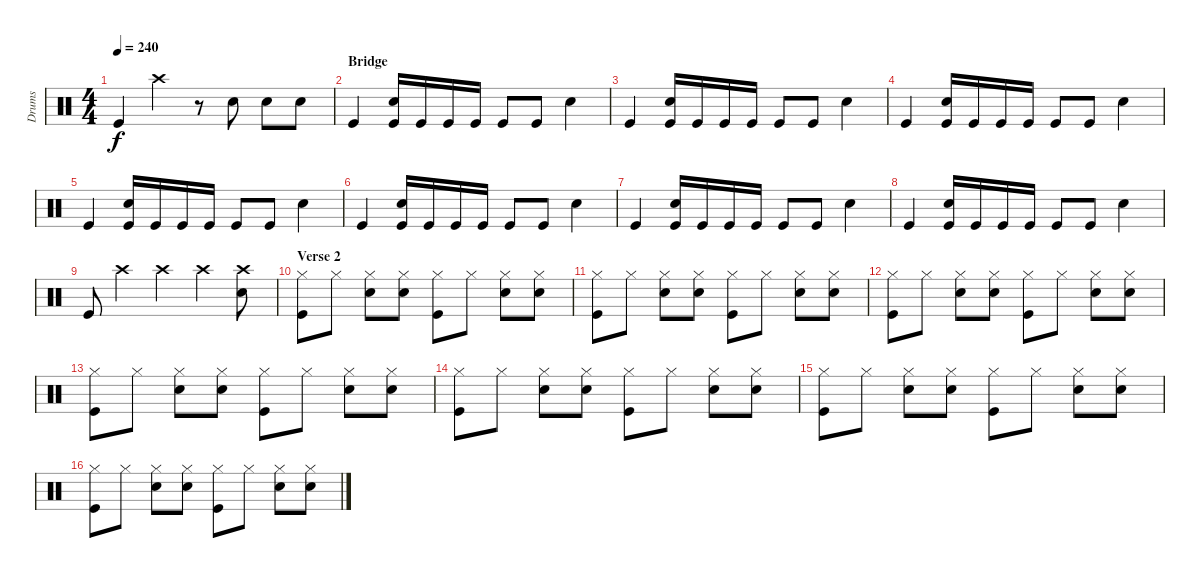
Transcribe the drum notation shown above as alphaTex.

\track ("Drums" "Drums") {instrument percussion}
\staff {score}
\articulation defaults
\ts (4 4)
\tempo 240
\clef neutral
\ks c "Kick (hit)".4{dy f} "Crash high (hit)".4
r.8 "Snare (hit) 2".8 "Snare (hit) 2".8 "Snare (hit) 2".8 |
\section ("" "Bridge")
"Kick (hit)".4 ("Kick (hit)" "Snare (hit) 2").16 "Kick (hit)".16 "Kick (hit)".16 "Kick (hit)".16 "Kick (hit)".8 "Kick (hit)".8 "Snare (hit) 2".4 |
"Kick (hit)".4 ("Kick (hit)" "Snare (hit) 2").16 "Kick (hit)".16 "Kick (hit)".16 "Kick (hit)".16 "Kick (hit)".8 "Kick (hit)".8 "Snare (hit) 2".4 |
"Kick (hit)".4 ("Kick (hit)" "Snare (hit) 2").16 "Kick (hit)".16 "Kick (hit)".16 "Kick (hit)".16 "Kick (hit)".8 "Kick (hit)".8 "Snare (hit) 2".4 |
"Kick (hit)".4 ("Kick (hit)" "Snare (hit) 2").16 "Kick (hit)".16 "Kick (hit)".16 "Kick (hit)".16 "Kick (hit)".8 "Kick (hit)".8 "Snare (hit) 2".4 |
"Kick (hit)".4 ("Kick (hit)" "Snare (hit) 2").16 "Kick (hit)".16 "Kick (hit)".16 "Kick (hit)".16 "Kick (hit)".8 "Kick (hit)".8 "Snare (hit) 2".4 |
"Kick (hit)".4 ("Kick (hit)" "Snare (hit) 2").16 "Kick (hit)".16 "Kick (hit)".16 "Kick (hit)".16 "Kick (hit)".8 "Kick (hit)".8 "Snare (hit) 2".4 |
"Kick (hit)".4 ("Kick (hit)" "Snare (hit) 2").16 "Kick (hit)".16 "Kick (hit)".16 "Kick (hit)".16 "Kick (hit)".8 "Kick (hit)".8 "Snare (hit) 2".4 |
"Kick (hit)".8 "Crash high (hit)".4 "Crash high (hit)".4 "Crash high (hit)".4 ("Snare (hit) 2" "Crash high (hit)").8 |
\section ("" "Verse 2")
("Kick (hit)" "Hi-Hat (closed)").8 "Hi-Hat (closed)".8 ("Snare (hit) 2" "Hi-Hat (closed)").8 ("Snare (hit) 2" "Hi-Hat (closed)").8 ("Kick (hit)" "Hi-Hat (closed)").8 "Hi-Hat (closed)".8 ("Snare (hit) 2" "Hi-Hat (closed)").8 ("Snare (hit) 2" "Hi-Hat (closed)").8 |
("Kick (hit)" "Hi-Hat (closed)").8 "Hi-Hat (closed)".8 ("Snare (hit) 2" "Hi-Hat (closed)").8 ("Snare (hit) 2" "Hi-Hat (closed)").8 ("Kick (hit)" "Hi-Hat (closed)").8 "Hi-Hat (closed)".8 ("Snare (hit) 2" "Hi-Hat (closed)").8 ("Snare (hit) 2" "Hi-Hat (closed)").8 |
("Kick (hit)" "Hi-Hat (closed)").8 "Hi-Hat (closed)".8 ("Snare (hit) 2" "Hi-Hat (closed)").8 ("Snare (hit) 2" "Hi-Hat (closed)").8 ("Kick (hit)" "Hi-Hat (closed)").8 "Hi-Hat (closed)".8 ("Snare (hit) 2" "Hi-Hat (closed)").8 ("Snare (hit) 2" "Hi-Hat (closed)").8 |
("Kick (hit)" "Hi-Hat (closed)").8 "Hi-Hat (closed)".8 ("Snare (hit) 2" "Hi-Hat (closed)").8 ("Snare (hit) 2" "Hi-Hat (closed)").8 ("Kick (hit)" "Hi-Hat (closed)").8 "Hi-Hat (closed)".8 ("Snare (hit) 2" "Hi-Hat (closed)").8 ("Snare (hit) 2" "Hi-Hat (closed)").8 |
("Kick (hit)" "Hi-Hat (closed)").8 "Hi-Hat (closed)".8 ("Snare (hit) 2" "Hi-Hat (closed)").8 ("Snare (hit) 2" "Hi-Hat (closed)").8 ("Kick (hit)" "Hi-Hat (closed)").8 "Hi-Hat (closed)".8 ("Snare (hit) 2" "Hi-Hat (closed)").8 ("Snare (hit) 2" "Hi-Hat (closed)").8 |
("Kick (hit)" "Hi-Hat (closed)").8 "Hi-Hat (closed)".8 ("Snare (hit) 2" "Hi-Hat (closed)").8 ("Snare (hit) 2" "Hi-Hat (closed)").8 ("Kick (hit)" "Hi-Hat (closed)").8 "Hi-Hat (closed)".8 ("Snare (hit) 2" "Hi-Hat (closed)").8 ("Snare (hit) 2" "Hi-Hat (closed)").8 |
("Kick (hit)" "Hi-Hat (closed)").8 "Hi-Hat (closed)".8 ("Snare (hit) 2" "Hi-Hat (closed)").8 ("Snare (hit) 2" "Hi-Hat (closed)").8 ("Kick (hit)" "Hi-Hat (closed)").8 "Hi-Hat (closed)".8 ("Snare (hit) 2" "Hi-Hat (closed)").8 ("Snare (hit) 2" "Hi-Hat (closed)").8
